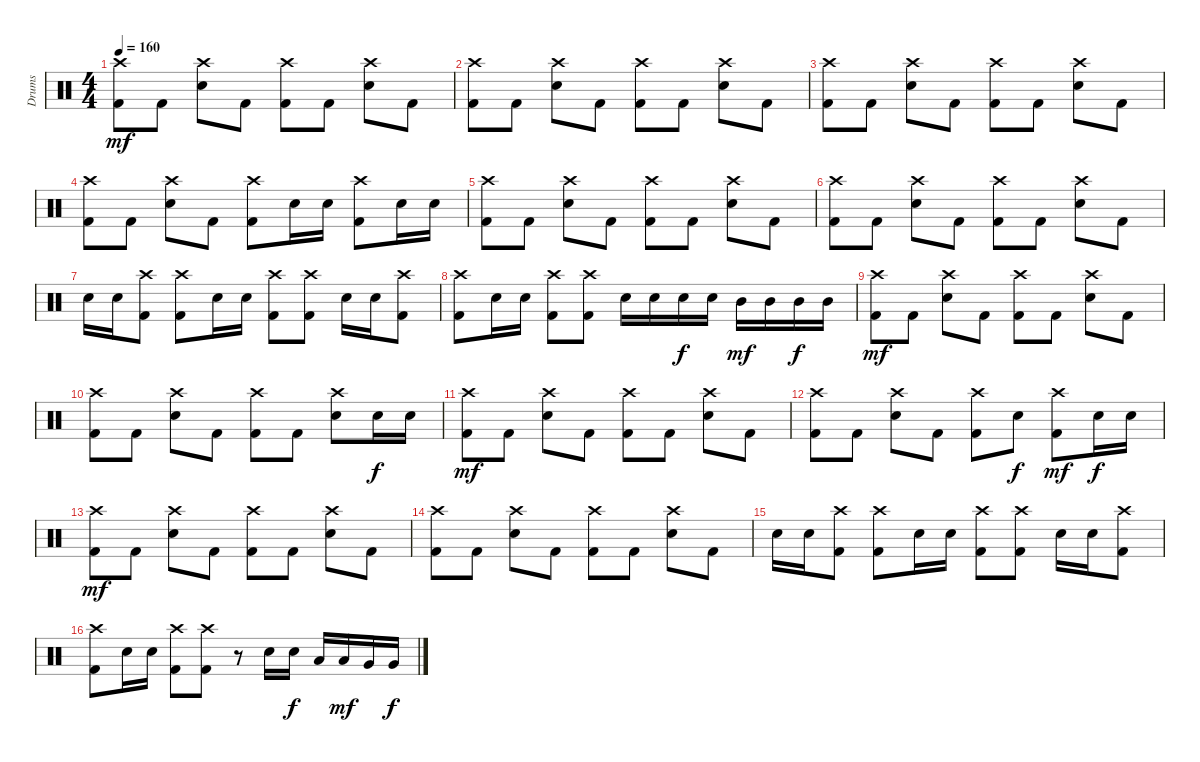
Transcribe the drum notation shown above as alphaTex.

\track ("Drums" "Drums") {instrument percussion}
\staff {score}
\articulation defaults
\ts (4 4)
\tempo 160
\clef neutral
\ks c
("Crash high (hit)" "Kick (hit) 2").8{dy mf} "Kick (hit) 2".8 ("Crash high (hit)" "Electric Snare (hit)").8 "Kick (hit) 2".8 ("Crash high (hit)" "Kick (hit) 2").8 "Kick (hit) 2".8 ("Crash high (hit)" "Electric Snare (hit)").8 "Kick (hit) 2".8 |
("Crash high (hit)" "Kick (hit) 2").8 "Kick (hit) 2".8 ("Crash high (hit)" "Electric Snare (hit)").8 "Kick (hit) 2".8 ("Crash high (hit)" "Kick (hit) 2").8 "Kick (hit) 2".8 ("Crash high (hit)" "Electric Snare (hit)").8 "Kick (hit) 2".8 |
("Crash high (hit)" "Kick (hit) 2").8 "Kick (hit) 2".8 ("Crash high (hit)" "Electric Snare (hit)").8 "Kick (hit) 2".8 ("Crash high (hit)" "Kick (hit) 2").8 "Kick (hit) 2".8 ("Crash high (hit)" "Electric Snare (hit)").8 "Kick (hit) 2".8 |
("Crash high (hit)" "Kick (hit) 2").8 "Kick (hit) 2".8 ("Crash high (hit)" "Electric Snare (hit)").8 "Kick (hit) 2".8 ("Crash high (hit)" "Kick (hit) 2").8 "Electric Snare (hit)".16 "Electric Snare (hit)".16 ("Crash high (hit)" "Kick (hit) 2").8 "Electric Snare (hit)".16 "Electric Snare (hit)".16 |
("Crash high (hit)" "Kick (hit) 2").8 "Kick (hit) 2".8 ("Crash high (hit)" "Electric Snare (hit)").8 "Kick (hit) 2".8 ("Crash high (hit)" "Kick (hit) 2").8 "Kick (hit) 2".8 ("Crash high (hit)" "Electric Snare (hit)").8 "Kick (hit) 2".8 |
("Crash high (hit)" "Kick (hit) 2").8 "Kick (hit) 2".8 ("Crash high (hit)" "Electric Snare (hit)").8 "Kick (hit) 2".8 ("Crash high (hit)" "Kick (hit) 2").8 "Kick (hit) 2".8 ("Crash high (hit)" "Electric Snare (hit)").8 "Kick (hit) 2".8 |
"Electric Snare (hit)".16 "Electric Snare (hit)".16 ("Crash high (hit)" "Kick (hit) 2").8 ("Crash high (hit)" "Kick (hit) 2").8 "Electric Snare (hit)".16 "Electric Snare (hit)".16 ("Crash high (hit)" "Kick (hit) 2").8 ("Crash high (hit)" "Kick (hit) 2").8 "Electric Snare (hit)".16 "Electric Snare (hit)".16 ("Crash high (hit)" "Kick (hit) 2").8 |
("Crash high (hit)" "Kick (hit) 2").8 "Electric Snare (hit)".16 "Electric Snare (hit)".16 ("Crash high (hit)" "Kick (hit) 2").8 ("Crash high (hit)" "Kick (hit) 2").8 "Electric Snare (hit)".16 "Electric Snare (hit)".16 "Electric Snare (hit)".16{dy f} "Electric Snare (hit)".16 "Mid Tom (hit)".16{dy mf} "Mid Tom (hit)".16 "Mid Tom (hit)".16{dy f} "Mid Tom (hit)".16 |
("Crash high (hit)" "Kick (hit) 2").8{dy mf} "Kick (hit) 2".8 ("Crash high (hit)" "Electric Snare (hit)").8 "Kick (hit) 2".8 ("Crash high (hit)" "Kick (hit) 2").8 "Kick (hit) 2".8 ("Crash high (hit)" "Electric Snare (hit)").8 "Kick (hit) 2".8 |
("Crash high (hit)" "Kick (hit) 2").8 "Kick (hit) 2".8 ("Crash high (hit)" "Electric Snare (hit)").8 "Kick (hit) 2".8 ("Crash high (hit)" "Kick (hit) 2").8 "Kick (hit) 2".8 ("Crash high (hit)" "Electric Snare (hit)").8 "Electric Snare (hit)".16{dy f} "Electric Snare (hit)".16 |
("Crash high (hit)" "Kick (hit) 2").8{dy mf} "Kick (hit) 2".8 ("Crash high (hit)" "Electric Snare (hit)").8 "Kick (hit) 2".8 ("Crash high (hit)" "Kick (hit) 2").8 "Kick (hit) 2".8 ("Crash high (hit)" "Electric Snare (hit)").8 "Kick (hit) 2".8 |
("Crash high (hit)" "Kick (hit) 2").8 "Kick (hit) 2".8 ("Crash high (hit)" "Electric Snare (hit)").8 "Kick (hit) 2".8 ("Crash high (hit)" "Kick (hit) 2").8 "Electric Snare (hit)".8{dy f} ("Crash high (hit)" "Kick (hit) 2").8{dy mf} "Electric Snare (hit)".16{dy f} "Electric Snare (hit)".16 |
("Crash high (hit)" "Kick (hit) 2").8{dy mf} "Kick (hit) 2".8 ("Crash high (hit)" "Electric Snare (hit)").8 "Kick (hit) 2".8 ("Crash high (hit)" "Kick (hit) 2").8 "Kick (hit) 2".8 ("Crash high (hit)" "Electric Snare (hit)").8 "Kick (hit) 2".8 |
("Crash high (hit)" "Kick (hit) 2").8 "Kick (hit) 2".8 ("Crash high (hit)" "Electric Snare (hit)").8 "Kick (hit) 2".8 ("Crash high (hit)" "Kick (hit) 2").8 "Kick (hit) 2".8 ("Crash high (hit)" "Electric Snare (hit)").8 "Kick (hit) 2".8 |
"Electric Snare (hit)".16 "Electric Snare (hit)".16 ("Crash high (hit)" "Kick (hit) 2").8 ("Crash high (hit)" "Kick (hit) 2").8 "Electric Snare (hit)".16 "Electric Snare (hit)".16 ("Crash high (hit)" "Kick (hit) 2").8 ("Crash high (hit)" "Kick (hit) 2").8 "Electric Snare (hit)".16 "Electric Snare (hit)".16 ("Crash high (hit)" "Kick (hit) 2").8 |
("Crash high (hit)" "Kick (hit) 2").8 "Electric Snare (hit)".16 "Electric Snare (hit)".16 ("Crash high (hit)" "Kick (hit) 2").8 ("Crash high (hit)" "Kick (hit) 2").8 r.8 "Electric Snare (hit)".16 "Electric Snare (hit)".16{dy f} "Low Tom (hit)".16 "Low Tom (hit)".16{dy mf} "Very Low Tom (hit)".16 "Very Low Tom (hit)".16{dy f}
